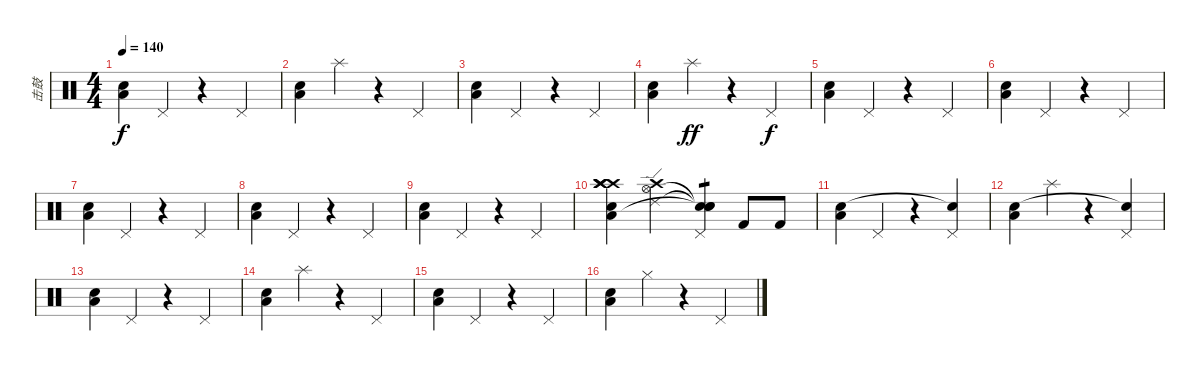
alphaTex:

\track ("击鼓" "击鼓") {instrument percussion}
\staff {score}
\articulation defaults
\ts (4 4)
\tempo 140
\clef neutral
\ks c
("Low Floor Tom (hit)" "Snare (hit) 2").4{dy f} "Pedal Hi-Hat (hit)".4 r.4 "Pedal Hi-Hat (hit)".4 |
("Low Floor Tom (hit)" "Snare (hit) 2").4 "Splash (hit)".4 r.4 "Pedal Hi-Hat (hit)".4 |
("Low Floor Tom (hit)" "Snare (hit) 2").4 "Pedal Hi-Hat (hit)".4 r.4 "Pedal Hi-Hat (hit)".4 |
("Low Floor Tom (hit)" "Snare (hit) 2").4 "Splash (hit)".4{dy ff} r.4 "Pedal Hi-Hat (hit)".4{dy f} |
("Low Floor Tom (hit)" "Snare (hit) 2").4 "Pedal Hi-Hat (hit)".4 r.4 "Pedal Hi-Hat (hit)".4 |
("Low Floor Tom (hit)" "Snare (hit) 2").4 "Pedal Hi-Hat (hit)".4 r.4 "Pedal Hi-Hat (hit)".4 |
("Low Floor Tom (hit)" "Snare (hit) 2").4 "Pedal Hi-Hat (hit)".4 r.4 "Pedal Hi-Hat (hit)".4 |
("Low Floor Tom (hit)" "Snare (hit) 2").4 "Pedal Hi-Hat (hit)".4 r.4 "Pedal Hi-Hat (hit)".4 |
("Low Floor Tom (hit)" "Snare (hit) 2").4 "Pedal Hi-Hat (hit)".4 r.4 "Pedal Hi-Hat (hit)".4 |
("Crash high (hit)" "Crash high (hit)" "Crash high (hit)" "Low Floor Tom (hit)" "Snare (hit) 2" "Crash high (hit)").4 ("Ride (edge) 2" "Hi-Hat (open)" "Crash high (hit)").4 ("Snare (hit)"{t} "Snare (hit)"{t} "Pedal Hi-Hat (hit)" "Snare (hit)"{t}).4{tp 1} "Kick (hit) 2".8 "Kick (hit) 2".8 |
("Low Floor Tom (hit)" "Snare (hit) 2").4 "Pedal Hi-Hat (hit)".4 r.4 ("Pedal Hi-Hat (hit)" "Snare (hit)"{t}).4 |
("Low Floor Tom (hit)" "Snare (hit) 2").4 "Splash (hit)".4 r.4 ("Pedal Hi-Hat (hit)" "Snare (hit)"{t}).4 |
("Low Floor Tom (hit)" "Snare (hit) 2").4 "Pedal Hi-Hat (hit)".4 r.4 "Pedal Hi-Hat (hit)".4 |
("Low Floor Tom (hit)" "Snare (hit) 2").4 "Splash (hit)".4 r.4 "Pedal Hi-Hat (hit)".4 |
("Low Floor Tom (hit)" "Snare (hit) 2").4 "Pedal Hi-Hat (hit)".4 r.4 "Pedal Hi-Hat (hit)".4 |
("Low Floor Tom (hit)" "Snare (hit) 2").4 "Hi-Hat (closed)".4 r.4 "Pedal Hi-Hat (hit)".4
